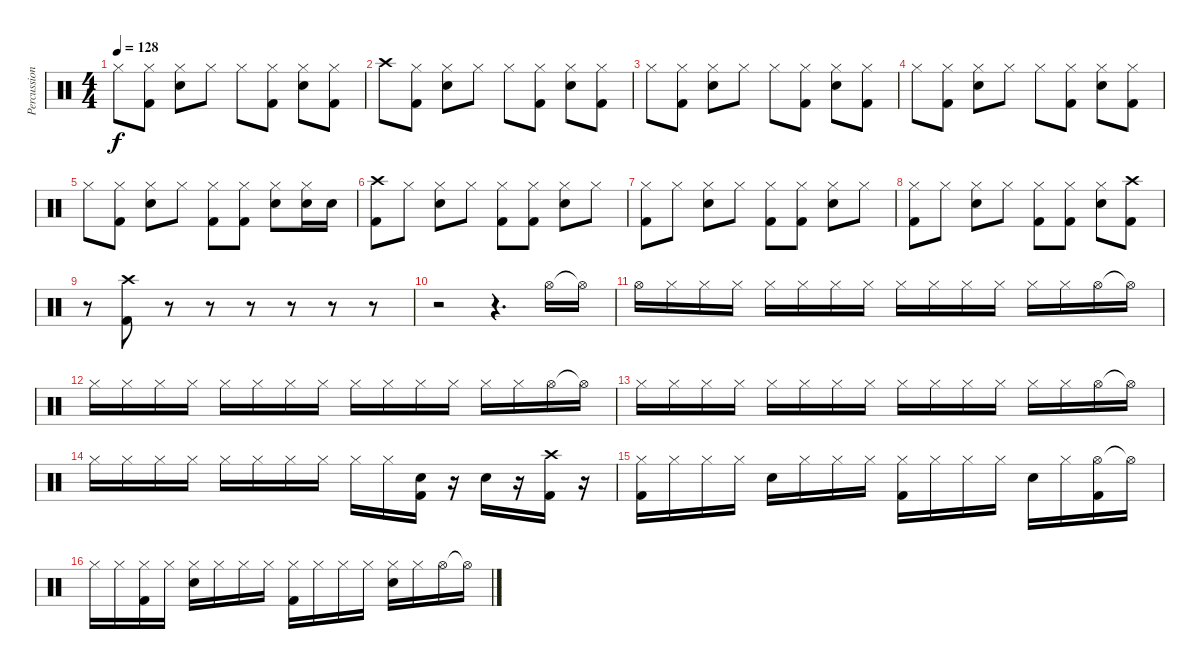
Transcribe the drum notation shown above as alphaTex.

\track ("Percussion" "Percussion") {instrument percussion bank 10}
\staff {score}
\articulation defaults
\ts (4 4)
\tempo 128
\clef neutral
\ks c "Hi-Hat (closed)".8{dy f}
("Hi-Hat (closed)" "Kick (hit) 2").8 ("Hi-Hat (closed)" "Snare (hit) 2").8 "Hi-Hat (closed)".8 "Hi-Hat (closed)".8 ("Hi-Hat (closed)" "Kick (hit) 2").8 ("Hi-Hat (closed)" "Snare (hit) 2").8 ("Hi-Hat (closed)" "Kick (hit) 2").8 |
"Crash high (hit)".8 ("Hi-Hat (closed)" "Kick (hit) 2").8 ("Hi-Hat (closed)" "Snare (hit) 2").8 "Hi-Hat (closed)".8 "Hi-Hat (closed)".8 ("Hi-Hat (closed)" "Kick (hit) 2").8 ("Hi-Hat (closed)" "Snare (hit) 2").8 ("Hi-Hat (closed)" "Kick (hit) 2").8 |
"Hi-Hat (closed)".8 ("Hi-Hat (closed)" "Kick (hit) 2").8 ("Hi-Hat (closed)" "Snare (hit) 2").8 "Hi-Hat (closed)".8 "Hi-Hat (closed)".8 ("Hi-Hat (closed)" "Kick (hit) 2").8 ("Hi-Hat (closed)" "Snare (hit) 2").8 ("Hi-Hat (closed)" "Kick (hit) 2").8 |
"Hi-Hat (closed)".8 ("Hi-Hat (closed)" "Kick (hit) 2").8 ("Hi-Hat (closed)" "Snare (hit) 2").8 "Hi-Hat (closed)".8 "Hi-Hat (closed)".8 ("Hi-Hat (closed)" "Kick (hit) 2").8 ("Hi-Hat (closed)" "Snare (hit) 2").8 ("Hi-Hat (closed)" "Kick (hit) 2").8 |
"Hi-Hat (closed)".8 ("Hi-Hat (closed)" "Kick (hit) 2").8 ("Hi-Hat (closed)" "Snare (hit) 2").8 "Hi-Hat (closed)".8 ("Hi-Hat (closed)" "Kick (hit) 2").8 ("Hi-Hat (closed)" "Kick (hit) 2").8 ("Hi-Hat (closed)" "Snare (hit) 2").8 ("Hi-Hat (closed)" "Snare (hit) 2").16 "Snare (hit) 2".16 |
("Crash high (hit)" "Kick (hit) 2").8 "Hi-Hat (closed)".8 ("Hi-Hat (closed)" "Snare (hit) 2").8 "Hi-Hat (closed)".8 ("Hi-Hat (closed)" "Kick (hit) 2").8 ("Hi-Hat (closed)" "Kick (hit) 2").8 ("Hi-Hat (closed)" "Snare (hit) 2").8 "Hi-Hat (closed)".8 |
("Hi-Hat (closed)" "Kick (hit) 2").8 "Hi-Hat (closed)".8 ("Hi-Hat (closed)" "Snare (hit) 2").8 "Hi-Hat (closed)".8 ("Hi-Hat (closed)" "Kick (hit) 2").8 ("Hi-Hat (closed)" "Kick (hit) 2").8 ("Hi-Hat (closed)" "Snare (hit) 2").8 "Hi-Hat (closed)".8 |
("Hi-Hat (closed)" "Kick (hit) 2").8 "Hi-Hat (closed)".8 ("Hi-Hat (closed)" "Snare (hit) 2").8 "Hi-Hat (closed)".8 ("Hi-Hat (closed)" "Kick (hit) 2").8 ("Hi-Hat (closed)" "Kick (hit) 2").8 ("Hi-Hat (closed)" "Snare (hit) 2").8 ("Crash high (hit)" "Kick (hit) 2").8 |
r.8 ("Crash high (hit)" "Kick (hit) 2").8 r.8 r.8 r.8 r.8 r.8 r.8 |
r.2 r.4{d} "Hi-Hat (open)".16 "Hi-Hat (open)"{t}.16 |
"Hi-Hat (open)".16 "Hi-Hat (closed)".16 "Hi-Hat (closed)".16 "Hi-Hat (closed)".16 "Hi-Hat (closed)".16 "Hi-Hat (closed)".16 "Hi-Hat (closed)".16 "Hi-Hat (closed)".16 "Hi-Hat (closed)".16 "Hi-Hat (closed)".16 "Hi-Hat (closed)".16 "Hi-Hat (closed)".16 "Hi-Hat (closed)".16 "Hi-Hat (closed)".16 "Hi-Hat (open)".16 "Hi-Hat (open)"{t}.16 |
"Hi-Hat (closed)".16 "Hi-Hat (closed)".16 "Hi-Hat (closed)".16 "Hi-Hat (closed)".16 "Hi-Hat (closed)".16 "Hi-Hat (closed)".16 "Hi-Hat (closed)".16 "Hi-Hat (closed)".16 "Hi-Hat (closed)".16 "Hi-Hat (closed)".16 "Hi-Hat (closed)".16 "Hi-Hat (closed)".16 "Hi-Hat (closed)".16 "Hi-Hat (closed)".16 "Hi-Hat (open)".16 "Hi-Hat (open)"{t}.16 |
"Hi-Hat (closed)".16 "Hi-Hat (closed)".16 "Hi-Hat (closed)".16 "Hi-Hat (closed)".16 "Hi-Hat (closed)".16 "Hi-Hat (closed)".16 "Hi-Hat (closed)".16 "Hi-Hat (closed)".16 "Hi-Hat (closed)".16 "Hi-Hat (closed)".16 "Hi-Hat (closed)".16 "Hi-Hat (closed)".16 "Hi-Hat (closed)".16 "Hi-Hat (closed)".16 "Hi-Hat (open)".16 "Hi-Hat (open)"{t}.16 |
"Hi-Hat (closed)".16 "Hi-Hat (closed)".16 "Hi-Hat (closed)".16 "Hi-Hat (closed)".16 "Hi-Hat (closed)".16 "Hi-Hat (closed)".16 "Hi-Hat (closed)".16 "Hi-Hat (closed)".16 "Hi-Hat (closed)".16 "Hi-Hat (closed)".16 ("Snare (hit) 2" "Kick (hit) 2").16 r.16 "Snare (hit) 2".16 r.16 ("Crash high (hit)" "Kick (hit) 2").16 r.16 |
("Hi-Hat (closed)" "Kick (hit) 2").16 "Hi-Hat (closed)".16 "Hi-Hat (closed)".16 "Hi-Hat (closed)".16 "Snare (hit) 2".16 "Hi-Hat (closed)".16 "Hi-Hat (closed)".16 "Hi-Hat (closed)".16 ("Hi-Hat (closed)" "Kick (hit) 2").16 "Hi-Hat (closed)".16 "Hi-Hat (closed)".16 "Hi-Hat (closed)".16 "Snare (hit) 2".16 "Hi-Hat (closed)".16 ("Hi-Hat (open)" "Kick (hit) 2").16 "Hi-Hat (open)"{t}.16 |
"Hi-Hat (closed)".16 "Hi-Hat (closed)".16 ("Hi-Hat (closed)" "Kick (hit) 2").16 "Hi-Hat (closed)".16 ("Hi-Hat (closed)" "Snare (hit) 2").16 "Hi-Hat (closed)".16 "Hi-Hat (closed)".16 "Hi-Hat (closed)".16 ("Hi-Hat (closed)" "Kick (hit) 2").16 "Hi-Hat (closed)".16 "Hi-Hat (closed)".16 "Hi-Hat (closed)".16 ("Hi-Hat (closed)" "Snare (hit) 2").16 "Hi-Hat (closed)".16 "Hi-Hat (open)".16 "Hi-Hat (open)"{t}.16
